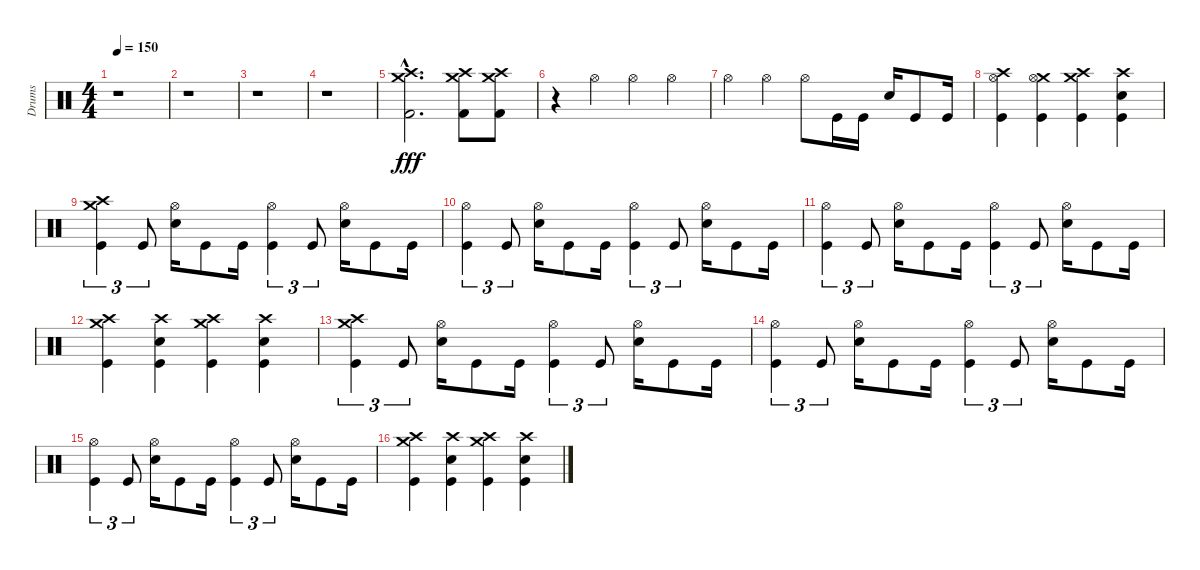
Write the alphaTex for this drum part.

\track ("Drums" "Drums") {instrument percussion}
\staff {score}
\articulation defaults
\ts (4 4)
\tempo 150
\clef neutral
\ks c
r.1{dy fff} |
r.1 |
r.1 |
r.1 |
("Crash medium (hit)"{hac} "Crash high (hit)"{hac} "Kick (hit) 2"{hac}).2{d} ("Crash medium (hit)" "Crash high (hit)" "Kick (hit) 2").8 ("Crash medium (hit)" "Crash high (hit)" "Kick (hit) 2").8 |
r.4 "Hi-Hat (open)".4 "Hi-Hat (open)".4 "Hi-Hat (open)".4 |
"Hi-Hat (open)".4 "Hi-Hat (open)".4 "Hi-Hat (open)".8 "Kick (hit)".16 "Kick (hit)".16 "Snare (hit) 2".16 "Kick (hit)".8 "Kick (hit)".16 |
("Hi-Hat (open)" "Crash high (hit)" "Kick (hit)").4 ("Crash medium (hit)" "Hi-Hat (open)" "Kick (hit)").4 ("Crash medium (hit)" "Crash high (hit)" "Kick (hit)").4 ("Crash high (hit)" "Electric Snare (hit)" "Kick (hit)").4 |
("Crash medium (hit)" "Crash high (hit)" "Kick (hit)").4{tu (3 2)} "Kick (hit)".8{tu (3 2)} ("Hi-Hat (open)" "Snare (hit) 2").16 "Kick (hit)".8 "Kick (hit)".16 ("Hi-Hat (open)" "Kick (hit)").4{tu (3 2)} "Kick (hit)".8{tu (3 2)} ("Hi-Hat (open)" "Snare (hit) 2").16 "Kick (hit)".8 "Kick (hit)".16 |
("Hi-Hat (open)" "Kick (hit)").4{tu (3 2)} "Kick (hit)".8{tu (3 2)} ("Hi-Hat (open)" "Snare (hit) 2").16 "Kick (hit)".8 "Kick (hit)".16 ("Hi-Hat (open)" "Kick (hit)").4{tu (3 2)} "Kick (hit)".8{tu (3 2)} ("Hi-Hat (open)" "Snare (hit) 2").16 "Kick (hit)".8 "Kick (hit)".16 |
("Hi-Hat (open)" "Kick (hit)").4{tu (3 2)} "Kick (hit)".8{tu (3 2)} ("Hi-Hat (open)" "Snare (hit) 2").16 "Kick (hit)".8 "Kick (hit)".16 ("Hi-Hat (open)" "Kick (hit)").4{tu (3 2)} "Kick (hit)".8{tu (3 2)} ("Hi-Hat (open)" "Snare (hit) 2").16 "Kick (hit)".8 "Kick (hit)".16 |
("Crash medium (hit)" "Crash high (hit)" "Kick (hit)").4 ("Crash high (hit)" "Electric Snare (hit)" "Kick (hit)").4 ("Crash medium (hit)" "Crash high (hit)" "Kick (hit)").4 ("Crash high (hit)" "Electric Snare (hit)" "Kick (hit)").4 |
("Crash medium (hit)" "Crash high (hit)" "Kick (hit)").4{tu (3 2)} "Kick (hit)".8{tu (3 2)} ("Hi-Hat (open)" "Snare (hit) 2").16 "Kick (hit)".8 "Kick (hit)".16 ("Hi-Hat (open)" "Kick (hit)").4{tu (3 2)} "Kick (hit)".8{tu (3 2)} ("Hi-Hat (open)" "Snare (hit) 2").16 "Kick (hit)".8 "Kick (hit)".16 |
("Hi-Hat (open)" "Kick (hit)").4{tu (3 2)} "Kick (hit)".8{tu (3 2)} ("Hi-Hat (open)" "Snare (hit) 2").16 "Kick (hit)".8 "Kick (hit)".16 ("Hi-Hat (open)" "Kick (hit)").4{tu (3 2)} "Kick (hit)".8{tu (3 2)} ("Hi-Hat (open)" "Snare (hit) 2").16 "Kick (hit)".8 "Kick (hit)".16 |
("Hi-Hat (open)" "Kick (hit)").4{tu (3 2)} "Kick (hit)".8{tu (3 2)} ("Hi-Hat (open)" "Snare (hit) 2").16 "Kick (hit)".8 "Kick (hit)".16 ("Hi-Hat (open)" "Kick (hit)").4{tu (3 2)} "Kick (hit)".8{tu (3 2)} ("Hi-Hat (open)" "Snare (hit) 2").16 "Kick (hit)".8 "Kick (hit)".16 |
("Crash medium (hit)" "Crash high (hit)" "Kick (hit)").4 ("Crash high (hit)" "Electric Snare (hit)" "Kick (hit)").4 ("Crash medium (hit)" "Crash high (hit)" "Kick (hit)").4 ("Crash high (hit)" "Electric Snare (hit)" "Kick (hit)").4
